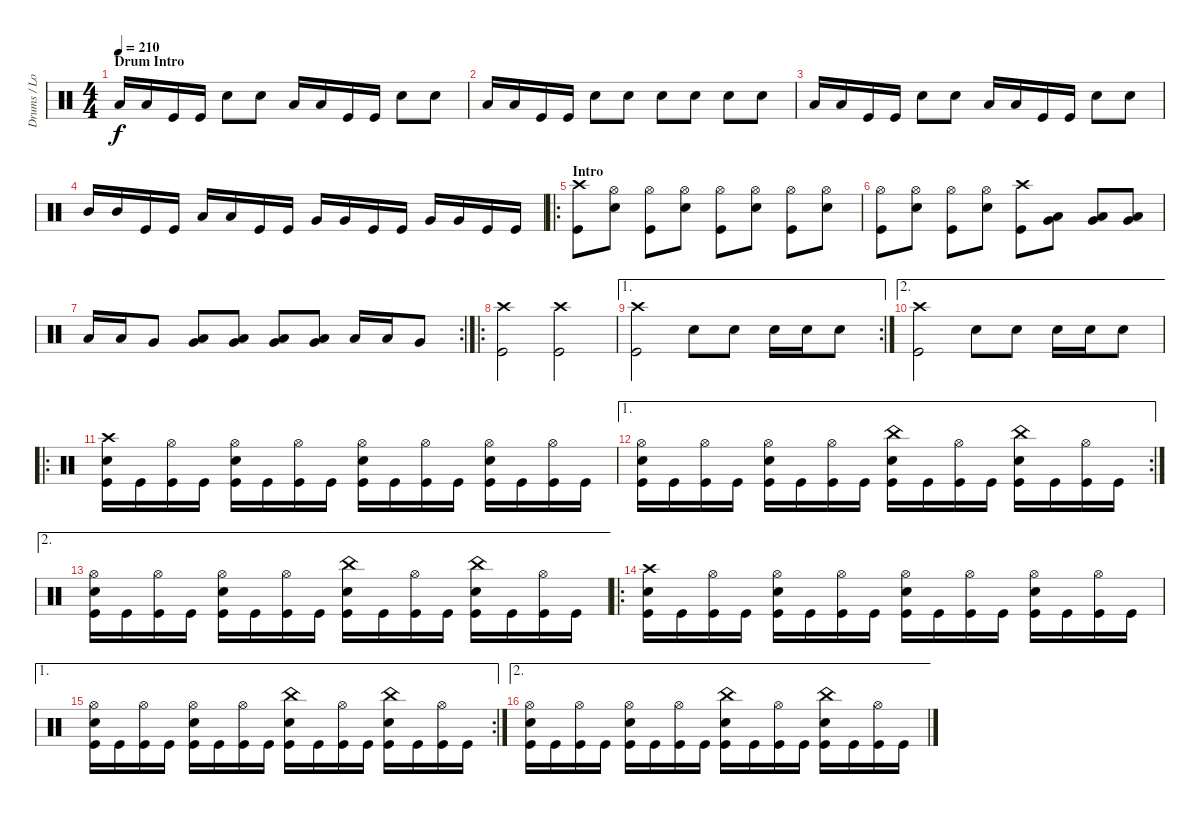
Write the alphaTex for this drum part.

\track ("Drums / Louie Clemente" "Drums / Lo") {instrument percussion}
\staff {score}
\articulation defaults
\ts (4 4)
\section ("" "Drum Intro")
\tempo 210
\clef neutral
\ks c "Low Tom (hit)".16{dy f} "Low Tom (hit)".16 "Kick (hit)".16 "Kick (hit)".16 "Snare (hit) 2".8 "Snare (hit) 2".8 "Low Tom (hit)".16 "Low Tom (hit)".16 "Kick (hit)".16 "Kick (hit)".16 "Snare (hit) 2".8 "Snare (hit) 2".8
|
"Low Tom (hit)".16 "Low Tom (hit)".16 "Kick (hit)".16 "Kick (hit)".16 "Snare (hit) 2".8 "Snare (hit) 2".8 "Snare (hit) 2".8 "Snare (hit) 2".8 "Snare (hit) 2".8 "Snare (hit) 2".8 |
"Low Tom (hit)".16 "Low Tom (hit)".16 "Kick (hit)".16 "Kick (hit)".16 "Snare (hit) 2".8 "Snare (hit) 2".8 "Low Tom (hit)".16 "Low Tom (hit)".16 "Kick (hit)".16 "Kick (hit)".16 "Snare (hit) 2".8 "Snare (hit) 2".8 |
"Mid Tom (hit)".16 "Mid Tom (hit)".16 "Kick (hit)".16 "Kick (hit)".16 "Low Tom (hit)".16 "Low Tom (hit)".16 "Kick (hit)".16 "Kick (hit)".16 "Very Low Tom (hit)".16 "Very Low Tom (hit)".16 "Kick (hit)".16 "Kick (hit)".16 "Very Low Tom (hit)".16 "Very Low Tom (hit)".16 "Kick (hit)".16 "Kick (hit)".16 |
\ro
\section ("" "Intro")
("Crash high (hit)" "Kick (hit)").8 ("Hi-Hat (open)" "Snare (hit) 2").8 ("Hi-Hat (open)" "Kick (hit)").8 ("Hi-Hat (open)" "Snare (hit) 2").8 ("Hi-Hat (open)" "Kick (hit)").8 ("Hi-Hat (open)" "Snare (hit) 2").8 ("Hi-Hat (open)" "Kick (hit)").8 ("Hi-Hat (open)" "Snare (hit) 2").8 |
("Hi-Hat (open)" "Kick (hit)").8 ("Hi-Hat (open)" "Snare (hit) 2").8 ("Hi-Hat (open)" "Kick (hit)").8 ("Hi-Hat (open)" "Snare (hit) 2").8 ("Crash high (hit)" "Kick (hit)").8 ("Low Tom (hit)" "Very Low Tom (hit)").8 ("Low Tom (hit)" "Very Low Tom (hit)").8 ("Low Tom (hit)" "Very Low Tom (hit)").8 |
\rc 2 "Low Tom (hit)".16 "Low Tom (hit)".16 "Very Low Tom (hit)".8
("Low Tom (hit)" "Very Low Tom (hit)").8 ("Low Tom (hit)" "Very Low Tom (hit)").8 ("Low Tom (hit)" "Very Low Tom (hit)").8 ("Low Tom (hit)" "Very Low Tom (hit)").8 "Low Tom (hit)".16 "Low Tom (hit)".16 "Very Low Tom (hit)".8 |
\ro
("Crash high (hit)" "Kick (hit)").2 ("Crash high (hit)" "Kick (hit)").2 |
\ae 1
\rc 2
("Crash high (hit)" "Kick (hit)").2 "Snare (hit) 2".8 "Snare (hit) 2".8 "Snare (hit) 2".16 "Snare (hit) 2".16 "Snare (hit) 2".8 |
\ae 2
("Crash high (hit)" "Kick (hit)").2 "Snare (hit) 2".8 "Snare (hit) 2".8 "Snare (hit) 2".16 "Snare (hit) 2".16 "Snare (hit) 2".8 |
\ro
("Crash high (hit)" "Snare (hit) 2" "Kick (hit)").16 "Kick (hit)".16 ("Hi-Hat (open)" "Kick (hit)").16 "Kick (hit)".16 ("Hi-Hat (open)" "Snare (hit) 2" "Kick (hit)").16 "Kick (hit)".16 ("Hi-Hat (open)" "Kick (hit)").16 "Kick (hit)".16 ("Hi-Hat (open)" "Snare (hit) 2" "Kick (hit)").16 "Kick (hit)".16 ("Hi-Hat (open)" "Kick (hit)").16 "Kick (hit)".16 ("Hi-Hat (open)" "Snare (hit) 2" "Kick (hit)").16 "Kick (hit)".16 ("Hi-Hat (open)" "Kick (hit)").16 "Kick (hit)".16 |
\ae 1
\rc 2
("Hi-Hat (open)" "Snare (hit) 2" "Kick (hit)").16 "Kick (hit)".16 ("Hi-Hat (open)" "Kick (hit)").16 "Kick (hit)".16 ("Hi-Hat (open)" "Snare (hit) 2" "Kick (hit)").16 "Kick (hit)".16 ("Hi-Hat (open)" "Kick (hit)").16 "Kick (hit)".16 ("China (hit)" "Snare (hit) 2" "Kick (hit)").16 "Kick (hit)".16 ("Hi-Hat (open)" "Kick (hit)").16 "Kick (hit)".16 ("China (hit)" "Snare (hit) 2" "Kick (hit)").16 "Kick (hit)".16 ("Hi-Hat (open)" "Kick (hit)").16 "Kick (hit)".16 |
\ae 2
("Hi-Hat (open)" "Snare (hit) 2" "Kick (hit)").16 "Kick (hit)".16 ("Hi-Hat (open)" "Kick (hit)").16 "Kick (hit)".16 ("Hi-Hat (open)" "Snare (hit) 2" "Kick (hit)").16 "Kick (hit)".16 ("Hi-Hat (open)" "Kick (hit)").16 "Kick (hit)".16 ("China (hit)" "Snare (hit) 2" "Kick (hit)").16 "Kick (hit)".16 ("Hi-Hat (open)" "Kick (hit)").16 "Kick (hit)".16 ("China (hit)" "Snare (hit) 2" "Kick (hit)").16 "Kick (hit)".16 ("Hi-Hat (open)" "Kick (hit)").16 "Kick (hit)".16 |
\ro
("Crash high (hit)" "Snare (hit) 2" "Kick (hit)").16 "Kick (hit)".16 ("Hi-Hat (open)" "Kick (hit)").16 "Kick (hit)".16 ("Hi-Hat (open)" "Snare (hit) 2" "Kick (hit)").16 "Kick (hit)".16 ("Hi-Hat (open)" "Kick (hit)").16 "Kick (hit)".16 ("Hi-Hat (open)" "Snare (hit) 2" "Kick (hit)").16 "Kick (hit)".16 ("Hi-Hat (open)" "Kick (hit)").16 "Kick (hit)".16 ("Hi-Hat (open)" "Snare (hit) 2" "Kick (hit)").16 "Kick (hit)".16 ("Hi-Hat (open)" "Kick (hit)").16 "Kick (hit)".16 |
\ae 1
\rc 2
("Hi-Hat (open)" "Snare (hit) 2" "Kick (hit)").16 "Kick (hit)".16 ("Hi-Hat (open)" "Kick (hit)").16 "Kick (hit)".16 ("Hi-Hat (open)" "Snare (hit) 2" "Kick (hit)").16 "Kick (hit)".16 ("Hi-Hat (open)" "Kick (hit)").16 "Kick (hit)".16 ("China (hit)" "Snare (hit) 2" "Kick (hit)").16 "Kick (hit)".16 ("Hi-Hat (open)" "Kick (hit)").16 "Kick (hit)".16 ("China (hit)" "Snare (hit) 2" "Kick (hit)").16 "Kick (hit)".16 ("Hi-Hat (open)" "Kick (hit)").16 "Kick (hit)".16 |
\ae 2
("Hi-Hat (open)" "Snare (hit) 2" "Kick (hit)").16 "Kick (hit)".16 ("Hi-Hat (open)" "Kick (hit)").16 "Kick (hit)".16 ("Hi-Hat (open)" "Snare (hit) 2" "Kick (hit)").16 "Kick (hit)".16 ("Hi-Hat (open)" "Kick (hit)").16 "Kick (hit)".16 ("China (hit)" "Snare (hit) 2" "Kick (hit)").16 "Kick (hit)".16 ("Hi-Hat (open)" "Kick (hit)").16 "Kick (hit)".16 ("China (hit)" "Snare (hit) 2" "Kick (hit)").16 "Kick (hit)".16 ("Hi-Hat (open)" "Kick (hit)").16 "Kick (hit)".16
